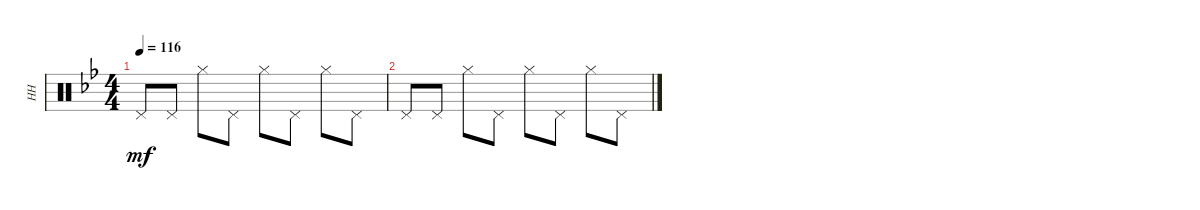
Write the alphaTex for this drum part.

\track ("HH" "HH") {instrument percussion}
\staff {score}
\articulation defaults
\ts (4 4)
\tempo 116
\clef neutral
\ks bb "Pedal Hi-Hat (hit)".8{dy mf} "Pedal Hi-Hat (hit)".8 "Hi-Hat (closed)".8 "Pedal Hi-Hat (hit)".8 "Hi-Hat (closed)".8 "Pedal Hi-Hat (hit)".8 "Hi-Hat (closed)".8 "Pedal Hi-Hat (hit)".8
|
"Pedal Hi-Hat (hit)".8 "Pedal Hi-Hat (hit)".8 "Hi-Hat (closed)".8 "Pedal Hi-Hat (hit)".8 "Hi-Hat (closed)".8 "Pedal Hi-Hat (hit)".8 "Hi-Hat (closed)".8 "Pedal Hi-Hat (hit)".8
